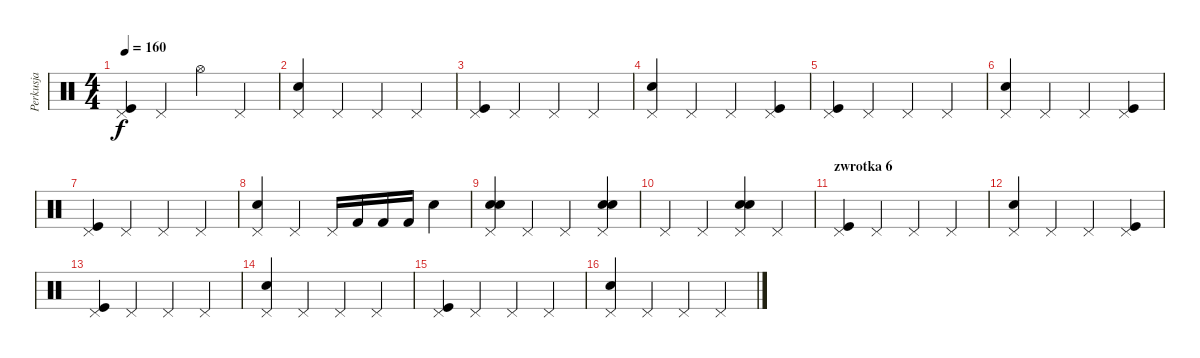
\track ("Perkusja" "Perkusja") {instrument percussion}
\staff {score}
\articulation defaults
\ts (4 4)
\tempo 160
\clef neutral
\ks c
("Kick (hit)" "Pedal Hi-Hat (hit)").4{dy f} "Pedal Hi-Hat (hit)".4 "Hi-Hat (open)".4 "Pedal Hi-Hat (hit)".4 |
("Snare (hit) 2" "Pedal Hi-Hat (hit)").4 "Pedal Hi-Hat (hit)".4 "Pedal Hi-Hat (hit)".4 "Pedal Hi-Hat (hit)".4 |
("Kick (hit)" "Pedal Hi-Hat (hit)").4 "Pedal Hi-Hat (hit)".4 "Pedal Hi-Hat (hit)".4 "Pedal Hi-Hat (hit)".4 |
("Snare (hit) 2" "Pedal Hi-Hat (hit)").4 "Pedal Hi-Hat (hit)".4 "Pedal Hi-Hat (hit)".4 ("Kick (hit)" "Pedal Hi-Hat (hit)").4 |
("Kick (hit)" "Pedal Hi-Hat (hit)").4 "Pedal Hi-Hat (hit)".4 "Pedal Hi-Hat (hit)".4 "Pedal Hi-Hat (hit)".4 |
("Snare (hit) 2" "Pedal Hi-Hat (hit)").4 "Pedal Hi-Hat (hit)".4 "Pedal Hi-Hat (hit)".4 ("Kick (hit)" "Pedal Hi-Hat (hit)").4 |
("Kick (hit)" "Pedal Hi-Hat (hit)").4 "Pedal Hi-Hat (hit)".4 "Pedal Hi-Hat (hit)".4 "Pedal Hi-Hat (hit)".4 |
("Snare (hit) 2" "Pedal Hi-Hat (hit)").4 "Pedal Hi-Hat (hit)".4 "Pedal Hi-Hat (hit)".16 "Kick (hit) 2".16 "Kick (hit) 2".16 "Kick (hit) 2".16 "Electric Snare (hit)".4 |
("Snare (hit) 2" "Electric Snare (hit)" "Pedal Hi-Hat (hit)").4 "Pedal Hi-Hat (hit)".4 "Pedal Hi-Hat (hit)".4 ("Snare (hit) 2" "Electric Snare (hit)" "Pedal Hi-Hat (hit)").4 |
"Pedal Hi-Hat (hit)".4 "Pedal Hi-Hat (hit)".4 ("Snare (hit) 2" "Electric Snare (hit)" "Pedal Hi-Hat (hit)").4 "Pedal Hi-Hat (hit)".4 |
\section ("" "zwrotka 6")
("Kick (hit)" "Pedal Hi-Hat (hit)").4 "Pedal Hi-Hat (hit)".4 "Pedal Hi-Hat (hit)".4 "Pedal Hi-Hat (hit)".4 |
("Snare (hit) 2" "Pedal Hi-Hat (hit)").4 "Pedal Hi-Hat (hit)".4 "Pedal Hi-Hat (hit)".4 ("Kick (hit)" "Pedal Hi-Hat (hit)").4 |
("Kick (hit)" "Pedal Hi-Hat (hit)").4 "Pedal Hi-Hat (hit)".4 "Pedal Hi-Hat (hit)".4 "Pedal Hi-Hat (hit)".4 |
("Snare (hit) 2" "Pedal Hi-Hat (hit)").4 "Pedal Hi-Hat (hit)".4 "Pedal Hi-Hat (hit)".4 "Pedal Hi-Hat (hit)".4 |
("Kick (hit)" "Pedal Hi-Hat (hit)").4 "Pedal Hi-Hat (hit)".4 "Pedal Hi-Hat (hit)".4 "Pedal Hi-Hat (hit)".4 |
("Snare (hit) 2" "Pedal Hi-Hat (hit)").4 "Pedal Hi-Hat (hit)".4 "Pedal Hi-Hat (hit)".4 "Pedal Hi-Hat (hit)".4
